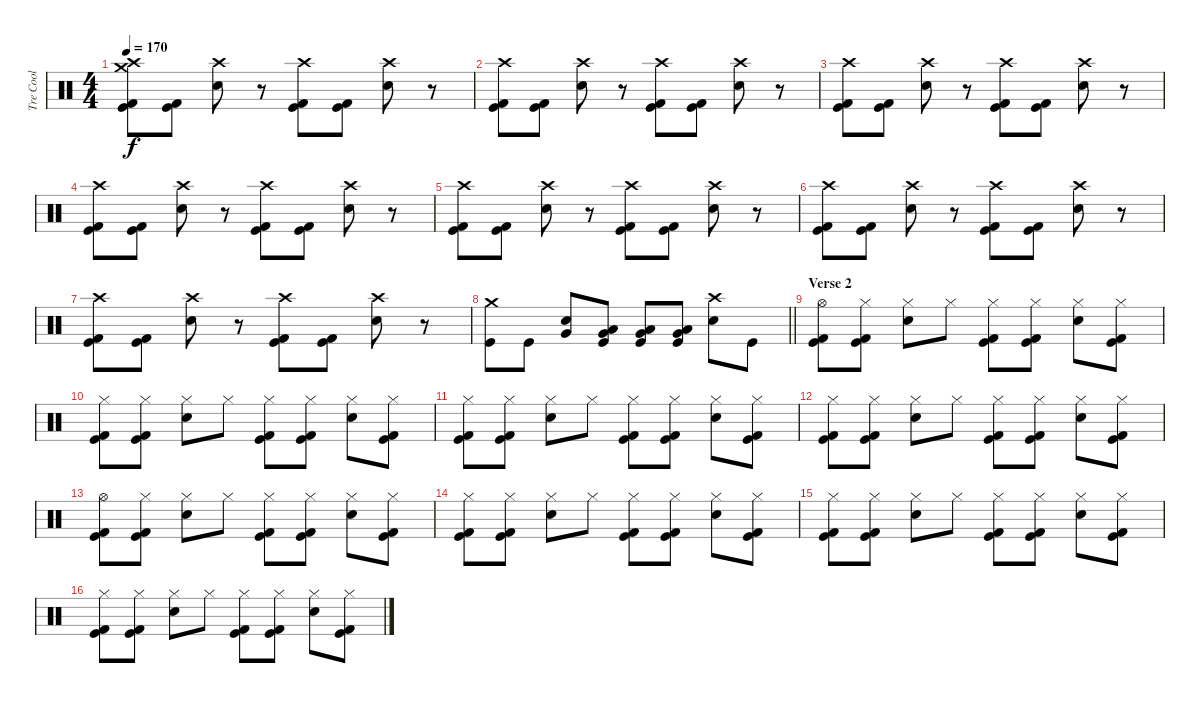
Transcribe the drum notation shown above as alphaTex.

\track ("Tre Cool" "Tre Cool") {instrument percussion}
\staff {score}
\articulation defaults
\ts (4 4)
\tempo 170
\clef neutral
\ks c
("Crash high (hit)" "Crash medium (hit)" "Kick (hit)" "Kick (hit) 2").8{dy f} ("Kick (hit)" "Kick (hit) 2").8 ("Crash high (hit)" "Electric Snare (hit)").8 r.8 ("Crash high (hit)" "Kick (hit)" "Kick (hit) 2").8 ("Kick (hit)" "Kick (hit) 2").8 ("Crash high (hit)" "Electric Snare (hit)").8 r.8 |
("Crash high (hit)" "Kick (hit)" "Kick (hit) 2").8 ("Kick (hit)" "Kick (hit) 2").8 ("Crash high (hit)" "Electric Snare (hit)").8 r.8 ("Crash high (hit)" "Kick (hit)" "Kick (hit) 2").8 ("Kick (hit)" "Kick (hit) 2").8 ("Crash high (hit)" "Electric Snare (hit)").8 r.8 |
("Crash high (hit)" "Kick (hit)" "Kick (hit) 2").8 ("Kick (hit)" "Kick (hit) 2").8 ("Crash high (hit)" "Electric Snare (hit)").8 r.8 ("Crash high (hit)" "Kick (hit)" "Kick (hit) 2").8 ("Kick (hit)" "Kick (hit) 2").8 ("Crash high (hit)" "Electric Snare (hit)").8 r.8 |
("Crash high (hit)" "Kick (hit)" "Kick (hit) 2").8 ("Kick (hit)" "Kick (hit) 2").8 ("Crash high (hit)" "Electric Snare (hit)").8 r.8 ("Crash high (hit)" "Kick (hit)" "Kick (hit) 2").8 ("Kick (hit)" "Kick (hit) 2").8 ("Crash high (hit)" "Electric Snare (hit)").8 r.8 |
("Crash high (hit)" "Kick (hit)" "Kick (hit) 2").8 ("Kick (hit)" "Kick (hit) 2").8 ("Crash high (hit)" "Electric Snare (hit)").8 r.8 ("Crash high (hit)" "Kick (hit)" "Kick (hit) 2").8 ("Kick (hit)" "Kick (hit) 2").8 ("Crash high (hit)" "Electric Snare (hit)").8 r.8 |
("Crash high (hit)" "Kick (hit)" "Kick (hit) 2").8 ("Kick (hit)" "Kick (hit) 2").8 ("Crash high (hit)" "Electric Snare (hit)").8 r.8 ("Crash high (hit)" "Kick (hit)" "Kick (hit) 2").8 ("Kick (hit)" "Kick (hit) 2").8 ("Crash high (hit)" "Electric Snare (hit)").8 r.8 |
("Crash high (hit)" "Kick (hit)" "Kick (hit) 2").8 ("Kick (hit)" "Kick (hit) 2").8 ("Crash high (hit)" "Electric Snare (hit)").8 r.8 ("Crash high (hit)" "Kick (hit)" "Kick (hit) 2").8 ("Kick (hit)" "Kick (hit) 2").8 ("Crash high (hit)" "Electric Snare (hit)").8 r.8 |
\barLineRight lightlight
("Crash medium (hit)" "Kick (hit)").8 "Kick (hit)".8 ("Snare (hit) 2" "Very Low Tom (hit)").8 ("Very Low Tom (hit)" "Low Tom (hit)" "Kick (hit)").8 ("Very Low Tom (hit)" "Low Tom (hit)" "Kick (hit)").8 ("Very Low Tom (hit)" "Low Tom (hit)" "Kick (hit)").8 ("Crash high (hit)" "Snare (hit) 2").8 "Kick (hit)".8 |
\section ("" "Verse 2")
("Hi-Hat (open)" "Kick (hit)" "Kick (hit) 2").8 ("Hi-Hat (closed)" "Kick (hit)" "Kick (hit) 2").8 ("Hi-Hat (closed)" "Electric Snare (hit)").8 "Hi-Hat (closed)".8 ("Hi-Hat (closed)" "Kick (hit)" "Kick (hit) 2").8 ("Hi-Hat (closed)" "Kick (hit)" "Kick (hit) 2").8 ("Hi-Hat (closed)" "Electric Snare (hit)").8 ("Hi-Hat (closed)" "Kick (hit)" "Kick (hit) 2").8 |
("Hi-Hat (closed)" "Kick (hit)" "Kick (hit) 2").8 ("Hi-Hat (closed)" "Kick (hit)" "Kick (hit) 2").8 ("Hi-Hat (closed)" "Electric Snare (hit)").8 "Hi-Hat (closed)".8 ("Hi-Hat (closed)" "Kick (hit)" "Kick (hit) 2").8 ("Hi-Hat (closed)" "Kick (hit)" "Kick (hit) 2").8 ("Hi-Hat (closed)" "Electric Snare (hit)").8 ("Hi-Hat (closed)" "Kick (hit)" "Kick (hit) 2").8 |
("Hi-Hat (closed)" "Kick (hit)" "Kick (hit) 2").8 ("Hi-Hat (closed)" "Kick (hit)" "Kick (hit) 2").8 ("Hi-Hat (closed)" "Electric Snare (hit)").8 "Hi-Hat (closed)".8 ("Hi-Hat (closed)" "Kick (hit)" "Kick (hit) 2").8 ("Hi-Hat (closed)" "Kick (hit)" "Kick (hit) 2").8 ("Hi-Hat (closed)" "Electric Snare (hit)").8 ("Hi-Hat (closed)" "Kick (hit)" "Kick (hit) 2").8 |
("Hi-Hat (closed)" "Kick (hit)" "Kick (hit) 2").8 ("Hi-Hat (closed)" "Kick (hit)" "Kick (hit) 2").8 ("Hi-Hat (closed)" "Electric Snare (hit)").8 "Hi-Hat (closed)".8 ("Hi-Hat (closed)" "Kick (hit)" "Kick (hit) 2").8 ("Hi-Hat (closed)" "Kick (hit)" "Kick (hit) 2").8 ("Hi-Hat (closed)" "Electric Snare (hit)").8 ("Hi-Hat (closed)" "Kick (hit)" "Kick (hit) 2").8 |
("Hi-Hat (open)" "Kick (hit)" "Kick (hit) 2").8 ("Hi-Hat (closed)" "Kick (hit)" "Kick (hit) 2").8 ("Hi-Hat (closed)" "Electric Snare (hit)").8 "Hi-Hat (closed)".8 ("Hi-Hat (closed)" "Kick (hit)" "Kick (hit) 2").8 ("Hi-Hat (closed)" "Kick (hit)" "Kick (hit) 2").8 ("Hi-Hat (closed)" "Electric Snare (hit)").8 ("Hi-Hat (closed)" "Kick (hit)" "Kick (hit) 2").8 |
("Hi-Hat (closed)" "Kick (hit)" "Kick (hit) 2").8 ("Hi-Hat (closed)" "Kick (hit)" "Kick (hit) 2").8 ("Hi-Hat (closed)" "Electric Snare (hit)").8 "Hi-Hat (closed)".8 ("Hi-Hat (closed)" "Kick (hit)" "Kick (hit) 2").8 ("Hi-Hat (closed)" "Kick (hit)" "Kick (hit) 2").8 ("Hi-Hat (closed)" "Electric Snare (hit)").8 ("Hi-Hat (closed)" "Kick (hit)" "Kick (hit) 2").8 |
("Hi-Hat (closed)" "Kick (hit)" "Kick (hit) 2").8 ("Hi-Hat (closed)" "Kick (hit)" "Kick (hit) 2").8 ("Hi-Hat (closed)" "Electric Snare (hit)").8 "Hi-Hat (closed)".8 ("Hi-Hat (closed)" "Kick (hit)" "Kick (hit) 2").8 ("Hi-Hat (closed)" "Kick (hit)" "Kick (hit) 2").8 ("Hi-Hat (closed)" "Electric Snare (hit)").8 ("Hi-Hat (closed)" "Kick (hit)" "Kick (hit) 2").8 |
("Hi-Hat (closed)" "Kick (hit)" "Kick (hit) 2").8 ("Hi-Hat (closed)" "Kick (hit)" "Kick (hit) 2").8 ("Hi-Hat (closed)" "Electric Snare (hit)").8 "Hi-Hat (closed)".8 ("Hi-Hat (closed)" "Kick (hit)" "Kick (hit) 2").8 ("Hi-Hat (closed)" "Kick (hit)" "Kick (hit) 2").8 ("Hi-Hat (closed)" "Electric Snare (hit)").8 ("Hi-Hat (closed)" "Kick (hit)" "Kick (hit) 2").8
